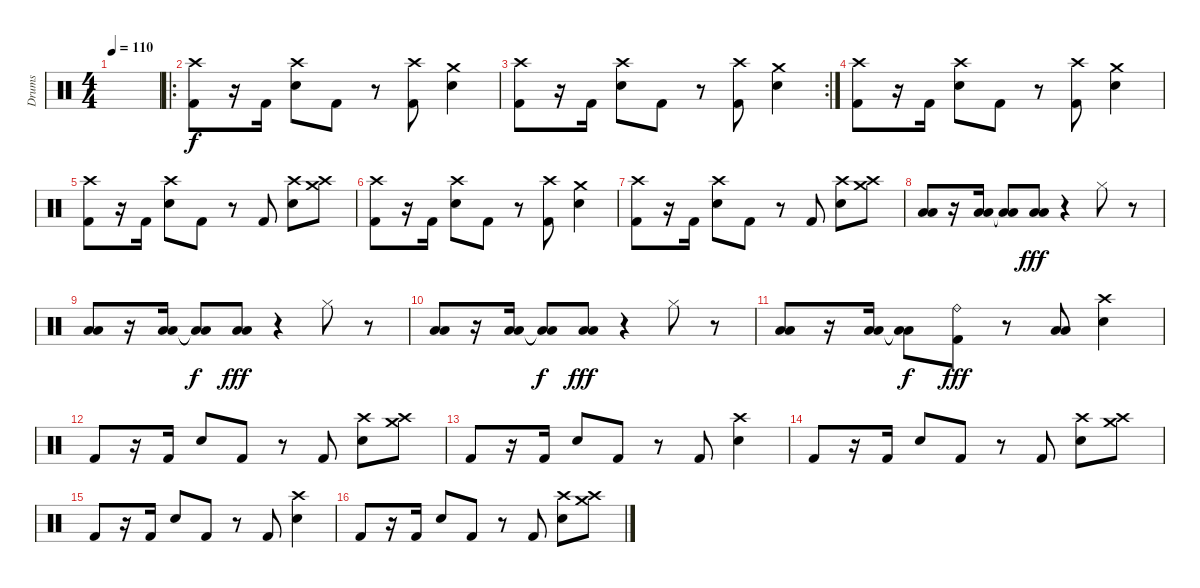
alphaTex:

\track ("Drums" "Drums") {instrument percussion}
\staff {score}
\articulation defaults
\ts (4 4)
\tempo 110
\clef neutral
\ks c
|
\ro
("Crash high (hit)" "Kick (hit) 2").8 r.16 "Kick (hit) 2".16 ("Crash high (hit)" "Electric Snare (hit)").8 "Kick (hit) 2".8 r.8 ("Crash high (hit)" "Kick (hit) 2").8 ("Crash medium (hit)" "Electric Snare (hit)").4 |
\rc 2
("Crash high (hit)" "Kick (hit) 2").8 r.16 "Kick (hit) 2".16 ("Crash high (hit)" "Electric Snare (hit)").8 "Kick (hit) 2".8 r.8 ("Crash high (hit)" "Kick (hit) 2").8 ("Crash medium (hit)" "Electric Snare (hit)").4 |
("Crash high (hit)" "Kick (hit) 2").8 r.16 "Kick (hit) 2".16 ("Crash high (hit)" "Electric Snare (hit)").8 "Kick (hit) 2".8 r.8 ("Crash high (hit)" "Kick (hit) 2").8 ("Crash medium (hit)" "Electric Snare (hit)").4 |
("Crash high (hit)" "Kick (hit) 2").8 r.16 "Kick (hit) 2".16 ("Crash high (hit)" "Electric Snare (hit)").8 "Kick (hit) 2".8 r.8 "Kick (hit) 2".8 ("Crash high (hit)" "Electric Snare (hit)").8 ("Crash high (hit)" "Crash medium (hit)").8 |
("Crash high (hit)" "Kick (hit) 2").8 r.16 "Kick (hit) 2".16 ("Crash high (hit)" "Electric Snare (hit)").8 "Kick (hit) 2".8 r.8 ("Crash high (hit)" "Kick (hit) 2").8 ("Crash medium (hit)" "Electric Snare (hit)").4 |
("Crash high (hit)" "Kick (hit) 2").8 r.16 "Kick (hit) 2".16 ("Crash high (hit)" "Electric Snare (hit)").8 "Kick (hit) 2".8 r.8 "Kick (hit) 2".8 ("Crash high (hit)" "Electric Snare (hit)").8 ("Crash high (hit)" "Crash medium (hit)").8 |
("Low Tom (hit)" "Low Floor Tom (hit)").8 r.16 ("Low Tom (hit)" "Low Floor Tom (hit)").16 ("Low Tom (hit)"{t} "Low Floor Tom (hit)"{t}).8{dy f} ("Low Tom (hit)" "Low Floor Tom (hit)").8{dy fff} r.4 "Hi-Hat (closed)".8 r.8 |
("Low Tom (hit)" "Low Floor Tom (hit)").8 r.16 ("Low Tom (hit)" "Low Floor Tom (hit)").16 ("Low Tom (hit)"{t} "Low Floor Tom (hit)"{t}).8{dy f} ("Low Tom (hit)" "Low Floor Tom (hit)").8{dy fff} r.4 "Hi-Hat (closed)".8 r.8 |
("Low Tom (hit)" "Low Floor Tom (hit)").8 r.16 ("Low Tom (hit)" "Low Floor Tom (hit)").16 ("Low Tom (hit)"{t} "Low Floor Tom (hit)"{t}).8{dy f} ("Low Tom (hit)" "Low Floor Tom (hit)").8{dy fff} r.4 "Hi-Hat (closed)".8 r.8 |
("Low Tom (hit)" "Low Floor Tom (hit)").8 r.16 ("Low Tom (hit)" "Low Floor Tom (hit)").16 ("Low Tom (hit)"{t} "Low Floor Tom (hit)"{t}).8{dy f} ("Ride (bell)" "Kick (hit) 2").8{dy fff} r.8 ("Low Tom (hit)" "Low Floor Tom (hit)").8 ("Crash high (hit)" "Electric Snare (hit)").4 |
"Kick (hit) 2".8 r.16 "Kick (hit) 2".16 "Electric Snare (hit)".8 "Kick (hit) 2".8 r.8 "Kick (hit) 2".8 ("Crash high (hit)" "Electric Snare (hit)").8 ("Crash high (hit)" "Crash medium (hit)").8 |
"Kick (hit) 2".8 r.16 "Kick (hit) 2".16 "Electric Snare (hit)".8 "Kick (hit) 2".8 r.8 "Kick (hit) 2".8 ("Crash high (hit)" "Electric Snare (hit)").4 |
"Kick (hit) 2".8 r.16 "Kick (hit) 2".16 "Electric Snare (hit)".8 "Kick (hit) 2".8 r.8 "Kick (hit) 2".8 ("Crash high (hit)" "Electric Snare (hit)").8 ("Crash high (hit)" "Crash medium (hit)").8 |
"Kick (hit) 2".8 r.16 "Kick (hit) 2".16 "Electric Snare (hit)".8 "Kick (hit) 2".8 r.8 "Kick (hit) 2".8 ("Crash high (hit)" "Electric Snare (hit)").4 |
"Kick (hit) 2".8 r.16 "Kick (hit) 2".16 "Electric Snare (hit)".8 "Kick (hit) 2".8 r.8 "Kick (hit) 2".8 ("Crash high (hit)" "Electric Snare (hit)").8 ("Crash high (hit)" "Crash medium (hit)").8
